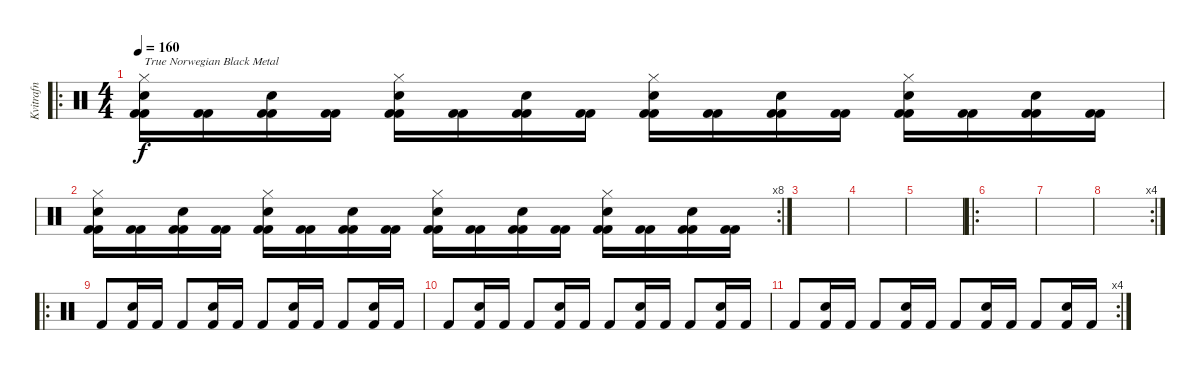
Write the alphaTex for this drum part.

\track ("Kvitrafn" "Kvitrafn") {instrument percussion}
\staff {score}
\articulation defaults
\ro
\ts (4 4)
\tempo 160
\clef neutral
\ks c
("Kick (hit) 2" "Kick (hit) 2" "Electric Snare (hit)" "Hi-Hat (closed)").16{txt "True Norwegian Black Metal" dy f} ("Kick (hit) 2" "Kick (hit) 2").16 ("Kick (hit) 2" "Kick (hit) 2" "Electric Snare (hit)").16 ("Kick (hit) 2" "Kick (hit) 2").16 ("Kick (hit) 2" "Kick (hit) 2" "Electric Snare (hit)" "Hi-Hat (closed)").16 ("Kick (hit) 2" "Kick (hit) 2").16 ("Kick (hit) 2" "Kick (hit) 2" "Electric Snare (hit)").16 ("Kick (hit) 2" "Kick (hit) 2").16 ("Kick (hit) 2" "Kick (hit) 2" "Electric Snare (hit)" "Hi-Hat (closed)").16 ("Kick (hit) 2" "Kick (hit) 2").16 ("Kick (hit) 2" "Kick (hit) 2" "Electric Snare (hit)").16 ("Kick (hit) 2" "Kick (hit) 2").16 ("Kick (hit) 2" "Kick (hit) 2" "Electric Snare (hit)" "Hi-Hat (closed)").16 ("Kick (hit) 2" "Kick (hit) 2").16 ("Kick (hit) 2" "Kick (hit) 2" "Electric Snare (hit)").16 ("Kick (hit) 2" "Kick (hit) 2").16 |
\rc 8
("Kick (hit) 2" "Kick (hit) 2" "Electric Snare (hit)" "Hi-Hat (closed)").16 ("Kick (hit) 2" "Kick (hit) 2").16 ("Kick (hit) 2" "Kick (hit) 2" "Electric Snare (hit)").16 ("Kick (hit) 2" "Kick (hit) 2").16 ("Kick (hit) 2" "Kick (hit) 2" "Electric Snare (hit)" "Hi-Hat (closed)").16 ("Kick (hit) 2" "Kick (hit) 2").16 ("Kick (hit) 2" "Kick (hit) 2" "Electric Snare (hit)").16 ("Kick (hit) 2" "Kick (hit) 2").16 ("Kick (hit) 2" "Kick (hit) 2" "Electric Snare (hit)" "Hi-Hat (closed)").16 ("Kick (hit) 2" "Kick (hit) 2").16 ("Kick (hit) 2" "Kick (hit) 2" "Electric Snare (hit)").16 ("Kick (hit) 2" "Kick (hit) 2").16 ("Kick (hit) 2" "Kick (hit) 2" "Electric Snare (hit)" "Hi-Hat (closed)").16 ("Kick (hit) 2" "Kick (hit) 2").16 ("Kick (hit) 2" "Kick (hit) 2" "Electric Snare (hit)").16 ("Kick (hit) 2" "Kick (hit) 2").16 |
|
|
|
\ro
|
|
\rc 4
|
\ro "Kick (hit) 2".8
("Kick (hit) 2" "Electric Snare (hit)").16 "Kick (hit) 2".16 "Kick (hit) 2".8 ("Kick (hit) 2" "Electric Snare (hit)").16 "Kick (hit) 2".16 "Kick (hit) 2".8 ("Kick (hit) 2" "Electric Snare (hit)").16 "Kick (hit) 2".16 "Kick (hit) 2".8 ("Kick (hit) 2" "Electric Snare (hit)").16 "Kick (hit) 2".16 |
"Kick (hit) 2".8 ("Kick (hit) 2" "Electric Snare (hit)").16 "Kick (hit) 2".16 "Kick (hit) 2".8 ("Kick (hit) 2" "Electric Snare (hit)").16 "Kick (hit) 2".16 "Kick (hit) 2".8 ("Kick (hit) 2" "Electric Snare (hit)").16 "Kick (hit) 2".16 "Kick (hit) 2".8 ("Kick (hit) 2" "Electric Snare (hit)").16 "Kick (hit) 2".16 |
\rc 4 "Kick (hit) 2".8
("Kick (hit) 2" "Electric Snare (hit)").16 "Kick (hit) 2".16 "Kick (hit) 2".8 ("Kick (hit) 2" "Electric Snare (hit)").16 "Kick (hit) 2".16 "Kick (hit) 2".8 ("Kick (hit) 2" "Electric Snare (hit)").16 "Kick (hit) 2".16 "Kick (hit) 2".8 ("Kick (hit) 2" "Electric Snare (hit)").16 "Kick (hit) 2".16
